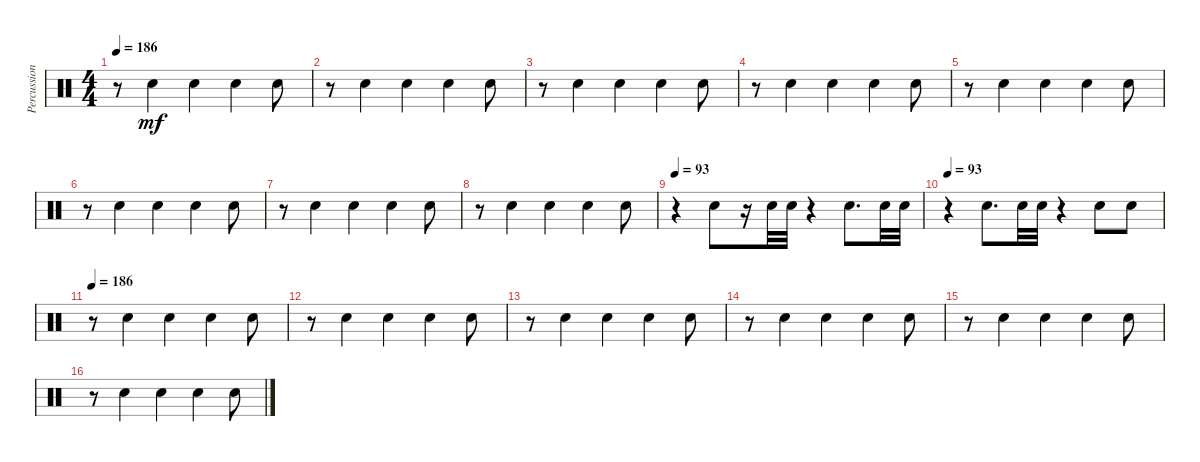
\track ("Percussion" "Percussion") {instrument percussion}
\staff {score}
\articulation defaults
\ts (4 4)
\tempo 186
\clef neutral
\ks c
r.8{dy mf} "Snare (hit) 2".4 "Snare (hit) 2".4 "Snare (hit) 2".4 "Snare (hit) 2".8 |
r.8 "Snare (hit) 2".4 "Snare (hit) 2".4 "Snare (hit) 2".4 "Snare (hit) 2".8 |
r.8 "Snare (hit) 2".4 "Snare (hit) 2".4 "Snare (hit) 2".4 "Snare (hit) 2".8 |
r.8 "Snare (hit) 2".4 "Snare (hit) 2".4 "Snare (hit) 2".4 "Snare (hit) 2".8 |
r.8 "Snare (hit) 2".4 "Snare (hit) 2".4 "Snare (hit) 2".4 "Snare (hit) 2".8 |
r.8 "Snare (hit) 2".4 "Snare (hit) 2".4 "Snare (hit) 2".4 "Snare (hit) 2".8 |
r.8 "Snare (hit) 2".4 "Snare (hit) 2".4 "Snare (hit) 2".4 "Snare (hit) 2".8 |
r.8 "Snare (hit) 2".4 "Snare (hit) 2".4 "Snare (hit) 2".4 "Snare (hit) 2".8 |
\tempo 93
r.4 "Snare (hit) 2".8 r.16 "Snare (hit) 2".32 "Snare (hit) 2".32 r.4 "Snare (hit) 2".8{d} "Snare (hit) 2".32 "Snare (hit) 2".32 |
\tempo 93
r.4 "Snare (hit) 2".8{d} "Snare (hit) 2".32 "Snare (hit) 2".32 r.4 "Snare (hit) 2".8 "Snare (hit) 2".8 |
\tempo 186
r.8 "Snare (hit) 2".4 "Snare (hit) 2".4 "Snare (hit) 2".4 "Snare (hit) 2".8 |
r.8 "Snare (hit) 2".4 "Snare (hit) 2".4 "Snare (hit) 2".4 "Snare (hit) 2".8 |
r.8 "Snare (hit) 2".4 "Snare (hit) 2".4 "Snare (hit) 2".4 "Snare (hit) 2".8 |
r.8 "Snare (hit) 2".4 "Snare (hit) 2".4 "Snare (hit) 2".4 "Snare (hit) 2".8 |
r.8 "Snare (hit) 2".4 "Snare (hit) 2".4 "Snare (hit) 2".4 "Snare (hit) 2".8 |
r.8 "Snare (hit) 2".4 "Snare (hit) 2".4 "Snare (hit) 2".4 "Snare (hit) 2".8
